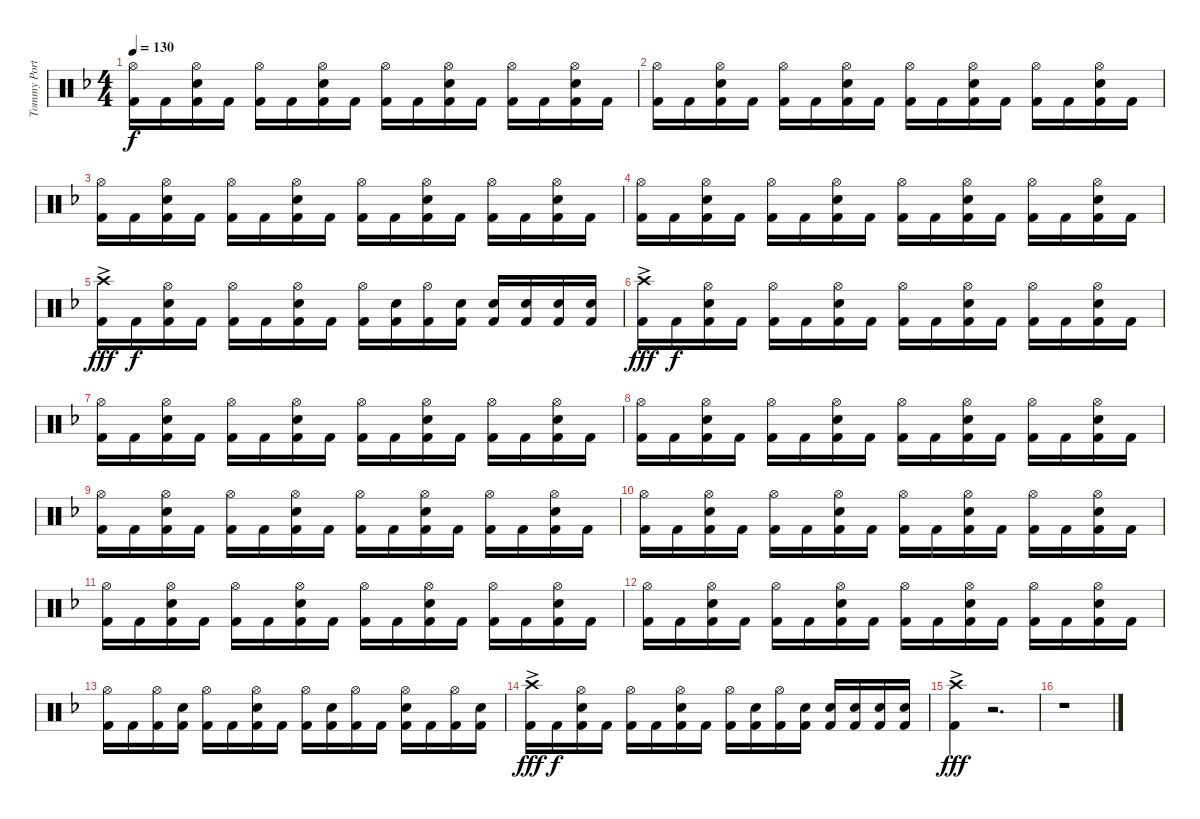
\track ("Tommy Portimo" "Tommy Port") {instrument percussion}
\staff {score}
\articulation defaults
\ts (4 4)
\tempo 130
\clef neutral
\ks dminor
("Hi-Hat (open)" "Kick (hit) 2").16{dy f} "Kick (hit) 2".16 ("Hi-Hat (open)" "Electric Snare (hit)" "Kick (hit) 2").16 "Kick (hit) 2".16 ("Hi-Hat (open)" "Kick (hit) 2").16 "Kick (hit) 2".16 ("Hi-Hat (open)" "Electric Snare (hit)" "Kick (hit) 2").16 "Kick (hit) 2".16 ("Hi-Hat (open)" "Kick (hit) 2").16 "Kick (hit) 2".16 ("Hi-Hat (open)" "Electric Snare (hit)" "Kick (hit) 2").16 "Kick (hit) 2".16 ("Hi-Hat (open)" "Kick (hit) 2").16 "Kick (hit) 2".16 ("Hi-Hat (open)" "Electric Snare (hit)" "Kick (hit) 2").16 "Kick (hit) 2".16 |
("Hi-Hat (open)" "Kick (hit) 2").16 "Kick (hit) 2".16 ("Hi-Hat (open)" "Electric Snare (hit)" "Kick (hit) 2").16 "Kick (hit) 2".16 ("Hi-Hat (open)" "Kick (hit) 2").16 "Kick (hit) 2".16 ("Hi-Hat (open)" "Electric Snare (hit)" "Kick (hit) 2").16 "Kick (hit) 2".16 ("Hi-Hat (open)" "Kick (hit) 2").16 "Kick (hit) 2".16 ("Hi-Hat (open)" "Electric Snare (hit)" "Kick (hit) 2").16 "Kick (hit) 2".16 ("Hi-Hat (open)" "Kick (hit) 2").16 "Kick (hit) 2".16 ("Hi-Hat (open)" "Electric Snare (hit)" "Kick (hit) 2").16 "Kick (hit) 2".16 |
("Hi-Hat (open)" "Kick (hit) 2").16 "Kick (hit) 2".16 ("Hi-Hat (open)" "Electric Snare (hit)" "Kick (hit) 2").16 "Kick (hit) 2".16 ("Hi-Hat (open)" "Kick (hit) 2").16 "Kick (hit) 2".16 ("Hi-Hat (open)" "Electric Snare (hit)" "Kick (hit) 2").16 "Kick (hit) 2".16 ("Hi-Hat (open)" "Kick (hit) 2").16 "Kick (hit) 2".16 ("Hi-Hat (open)" "Electric Snare (hit)" "Kick (hit) 2").16 "Kick (hit) 2".16 ("Hi-Hat (open)" "Kick (hit) 2").16 "Kick (hit) 2".16 ("Hi-Hat (open)" "Electric Snare (hit)" "Kick (hit) 2").16 "Kick (hit) 2".16 |
("Hi-Hat (open)" "Kick (hit) 2").16 "Kick (hit) 2".16 ("Hi-Hat (open)" "Electric Snare (hit)" "Kick (hit) 2").16 "Kick (hit) 2".16 ("Hi-Hat (open)" "Kick (hit) 2").16 "Kick (hit) 2".16 ("Hi-Hat (open)" "Electric Snare (hit)" "Kick (hit) 2").16 "Kick (hit) 2".16 ("Hi-Hat (open)" "Kick (hit) 2").16 "Kick (hit) 2".16 ("Hi-Hat (open)" "Electric Snare (hit)" "Kick (hit) 2").16 "Kick (hit) 2".16 ("Hi-Hat (open)" "Kick (hit) 2").16 "Kick (hit) 2".16 ("Hi-Hat (open)" "Electric Snare (hit)" "Kick (hit) 2").16 "Kick (hit) 2".16 |
("Crash high (hit)"{ac} "Kick (hit) 2").16{dy fff} "Kick (hit) 2".16{dy f} ("Hi-Hat (open)" "Electric Snare (hit)" "Kick (hit) 2").16 "Kick (hit) 2".16 ("Hi-Hat (open)" "Kick (hit) 2").16 "Kick (hit) 2".16 ("Hi-Hat (open)" "Electric Snare (hit)" "Kick (hit) 2").16 "Kick (hit) 2".16 ("Hi-Hat (open)" "Kick (hit) 2").16 ("Electric Snare (hit)" "Kick (hit) 2").16 ("Hi-Hat (open)" "Kick (hit) 2").16 ("Electric Snare (hit)" "Kick (hit) 2").16 ("Electric Snare (hit)" "Kick (hit) 2").16 ("Electric Snare (hit)" "Kick (hit) 2").16 ("Electric Snare (hit)" "Kick (hit) 2").16 ("Electric Snare (hit)" "Kick (hit) 2").16 |
("Crash high (hit)"{ac} "Kick (hit) 2").16{dy fff} "Kick (hit) 2".16{dy f} ("Hi-Hat (open)" "Electric Snare (hit)" "Kick (hit) 2").16 "Kick (hit) 2".16 ("Hi-Hat (open)" "Kick (hit) 2").16 "Kick (hit) 2".16 ("Hi-Hat (open)" "Electric Snare (hit)" "Kick (hit) 2").16 "Kick (hit) 2".16 ("Hi-Hat (open)" "Kick (hit) 2").16 "Kick (hit) 2".16 ("Hi-Hat (open)" "Electric Snare (hit)" "Kick (hit) 2").16 "Kick (hit) 2".16 ("Hi-Hat (open)" "Kick (hit) 2").16 "Kick (hit) 2".16 ("Hi-Hat (open)" "Electric Snare (hit)" "Kick (hit) 2").16 "Kick (hit) 2".16 |
("Hi-Hat (open)" "Kick (hit) 2").16 "Kick (hit) 2".16 ("Hi-Hat (open)" "Electric Snare (hit)" "Kick (hit) 2").16 "Kick (hit) 2".16 ("Hi-Hat (open)" "Kick (hit) 2").16 "Kick (hit) 2".16 ("Hi-Hat (open)" "Electric Snare (hit)" "Kick (hit) 2").16 "Kick (hit) 2".16 ("Hi-Hat (open)" "Kick (hit) 2").16 "Kick (hit) 2".16 ("Hi-Hat (open)" "Electric Snare (hit)" "Kick (hit) 2").16 "Kick (hit) 2".16 ("Hi-Hat (open)" "Kick (hit) 2").16 "Kick (hit) 2".16 ("Hi-Hat (open)" "Electric Snare (hit)" "Kick (hit) 2").16 "Kick (hit) 2".16 |
("Hi-Hat (open)" "Kick (hit) 2").16 "Kick (hit) 2".16 ("Hi-Hat (open)" "Electric Snare (hit)" "Kick (hit) 2").16 "Kick (hit) 2".16 ("Hi-Hat (open)" "Kick (hit) 2").16 "Kick (hit) 2".16 ("Hi-Hat (open)" "Electric Snare (hit)" "Kick (hit) 2").16 "Kick (hit) 2".16 ("Hi-Hat (open)" "Kick (hit) 2").16 "Kick (hit) 2".16 ("Hi-Hat (open)" "Electric Snare (hit)" "Kick (hit) 2").16 "Kick (hit) 2".16 ("Hi-Hat (open)" "Kick (hit) 2").16 "Kick (hit) 2".16 ("Hi-Hat (open)" "Electric Snare (hit)" "Kick (hit) 2").16 "Kick (hit) 2".16 |
("Hi-Hat (open)" "Kick (hit) 2").16 "Kick (hit) 2".16 ("Hi-Hat (open)" "Electric Snare (hit)" "Kick (hit) 2").16 "Kick (hit) 2".16 ("Hi-Hat (open)" "Kick (hit) 2").16 "Kick (hit) 2".16 ("Hi-Hat (open)" "Electric Snare (hit)" "Kick (hit) 2").16 "Kick (hit) 2".16 ("Hi-Hat (open)" "Kick (hit) 2").16 "Kick (hit) 2".16 ("Hi-Hat (open)" "Electric Snare (hit)" "Kick (hit) 2").16 "Kick (hit) 2".16 ("Hi-Hat (open)" "Kick (hit) 2").16 "Kick (hit) 2".16 ("Hi-Hat (open)" "Electric Snare (hit)" "Kick (hit) 2").16 "Kick (hit) 2".16 |
("Hi-Hat (open)" "Kick (hit) 2").16 "Kick (hit) 2".16 ("Hi-Hat (open)" "Electric Snare (hit)" "Kick (hit) 2").16 "Kick (hit) 2".16 ("Hi-Hat (open)" "Kick (hit) 2").16 "Kick (hit) 2".16 ("Hi-Hat (open)" "Electric Snare (hit)" "Kick (hit) 2").16 "Kick (hit) 2".16 ("Hi-Hat (open)" "Kick (hit) 2").16 "Kick (hit) 2".16 ("Hi-Hat (open)" "Electric Snare (hit)" "Kick (hit) 2").16 "Kick (hit) 2".16 ("Hi-Hat (open)" "Kick (hit) 2").16 "Kick (hit) 2".16 ("Hi-Hat (open)" "Electric Snare (hit)" "Kick (hit) 2").16 "Kick (hit) 2".16 |
("Hi-Hat (open)" "Kick (hit) 2").16 "Kick (hit) 2".16 ("Hi-Hat (open)" "Electric Snare (hit)" "Kick (hit) 2").16 "Kick (hit) 2".16 ("Hi-Hat (open)" "Kick (hit) 2").16 "Kick (hit) 2".16 ("Hi-Hat (open)" "Electric Snare (hit)" "Kick (hit) 2").16 "Kick (hit) 2".16 ("Hi-Hat (open)" "Kick (hit) 2").16 "Kick (hit) 2".16 ("Hi-Hat (open)" "Electric Snare (hit)" "Kick (hit) 2").16 "Kick (hit) 2".16 ("Hi-Hat (open)" "Kick (hit) 2").16 "Kick (hit) 2".16 ("Hi-Hat (open)" "Electric Snare (hit)" "Kick (hit) 2").16 "Kick (hit) 2".16 |
("Hi-Hat (open)" "Kick (hit) 2").16 "Kick (hit) 2".16 ("Hi-Hat (open)" "Electric Snare (hit)" "Kick (hit) 2").16 "Kick (hit) 2".16 ("Hi-Hat (open)" "Kick (hit) 2").16 "Kick (hit) 2".16 ("Hi-Hat (open)" "Electric Snare (hit)" "Kick (hit) 2").16 "Kick (hit) 2".16 ("Hi-Hat (open)" "Kick (hit) 2").16 "Kick (hit) 2".16 ("Hi-Hat (open)" "Electric Snare (hit)" "Kick (hit) 2").16 "Kick (hit) 2".16 ("Hi-Hat (open)" "Kick (hit) 2").16 "Kick (hit) 2".16 ("Hi-Hat (open)" "Electric Snare (hit)" "Kick (hit) 2").16 "Kick (hit) 2".16 |
("Hi-Hat (open)" "Kick (hit) 2").16 "Kick (hit) 2".16 ("Hi-Hat (open)" "Kick (hit) 2").16 ("Electric Snare (hit)" "Kick (hit) 2").16 ("Hi-Hat (open)" "Kick (hit) 2").16 "Kick (hit) 2".16 ("Hi-Hat (open)" "Electric Snare (hit)" "Kick (hit) 2").16 "Kick (hit) 2".16 ("Hi-Hat (open)" "Kick (hit) 2").16 ("Electric Snare (hit)" "Kick (hit) 2").16 ("Hi-Hat (open)" "Kick (hit) 2").16 "Kick (hit) 2".16 ("Hi-Hat (open)" "Electric Snare (hit)" "Kick (hit) 2").16 "Kick (hit) 2".16 ("Hi-Hat (open)" "Kick (hit) 2").16 ("Electric Snare (hit)" "Kick (hit) 2").16 |
("Crash high (hit)"{ac} "Kick (hit) 2").16{dy fff} "Kick (hit) 2".16{dy f} ("Hi-Hat (open)" "Electric Snare (hit)" "Kick (hit) 2").16 "Kick (hit) 2".16 ("Hi-Hat (open)" "Kick (hit) 2").16 "Kick (hit) 2".16 ("Hi-Hat (open)" "Electric Snare (hit)" "Kick (hit) 2").16 "Kick (hit) 2".16 ("Hi-Hat (open)" "Kick (hit) 2").16 ("Electric Snare (hit)" "Kick (hit) 2").16 ("Hi-Hat (open)" "Kick (hit) 2").16 ("Electric Snare (hit)" "Kick (hit) 2").16 ("Electric Snare (hit)" "Kick (hit) 2").16 ("Electric Snare (hit)" "Kick (hit) 2").16 ("Electric Snare (hit)" "Kick (hit) 2").16 ("Electric Snare (hit)" "Kick (hit) 2").16 |
("Crash high (hit)"{ac} "Kick (hit) 2").4{dy fff} r.2{d} |
r.1
